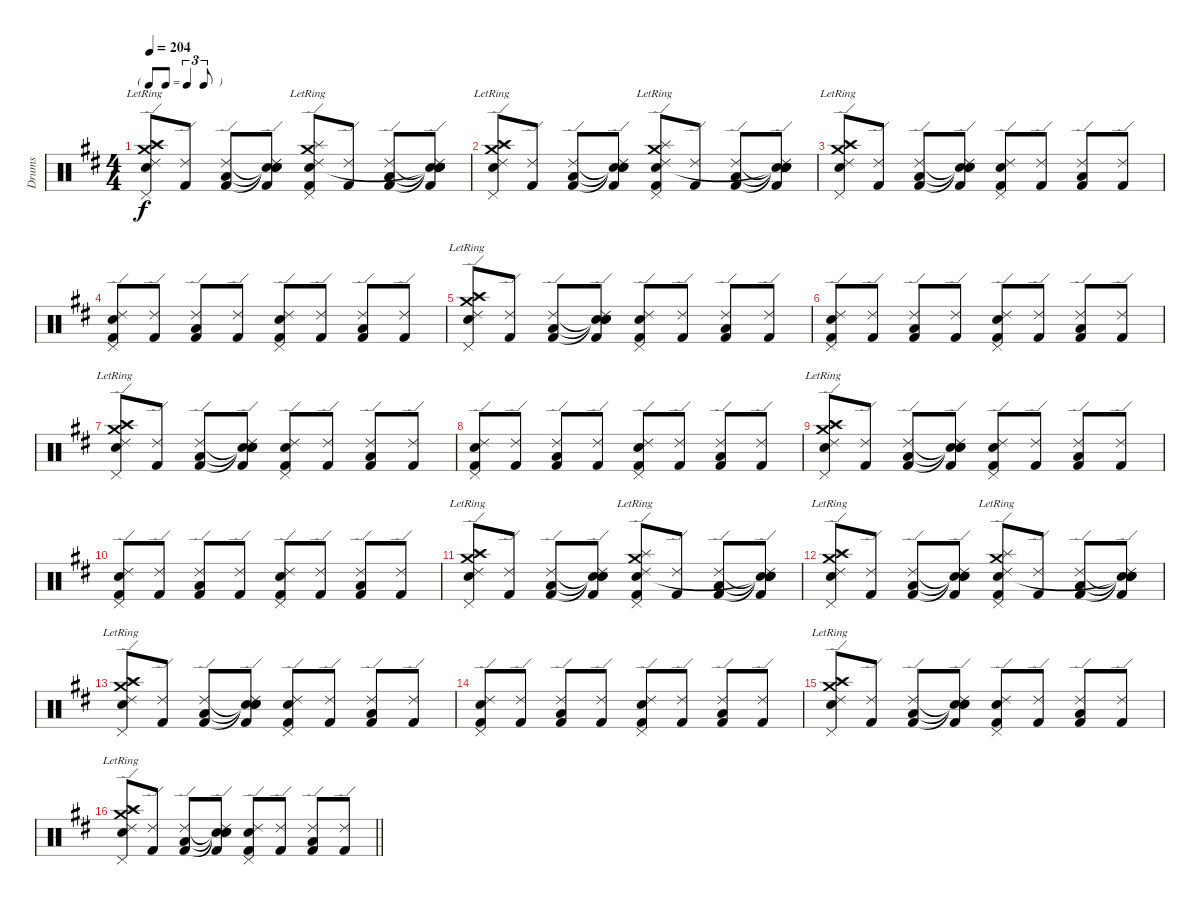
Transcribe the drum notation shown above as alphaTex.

\track ("Drums" "Drums") {instrument percussion}
\staff {score}
\articulation defaults
\ts (4 4)
\tf triplet8th
\tempo 204
\clef neutral
\ks d
("Ride (edge) 2" "Crash medium (hit)" "Crash high (hit)"{lr} "Pedal Hi-Hat (hit)"{lr} "Splash (hit)"{lr} "Snare (hit) 2"{lr}).8{dy f} ("Kick (hit) 2" "Ride (edge) 2").8 ("Low Floor Tom (hit)" "Ride (edge) 2" "Kick (hit) 2").8 ("Snare (hit)"{t} "Snare (hit)"{t} "Snare (hit)"{t} "Kick (hit) 2" "Ride (edge) 2").8 ("Ride (edge) 2"{lr} "Crash medium (hit)"{lr} "Kick (hit) 2"{lr} "Pedal Hi-Hat (hit)"{lr} "Splash (hit)"{lr} "Snare (hit) 2"{lr}).8 ("Kick (hit) 2" "Ride (edge) 2").8 ("Low Floor Tom (hit)" "Ride (edge) 2" "Kick (hit) 2").8 ("Snare (hit)"{t} "Snare (hit)"{t} "Snare (hit)"{t} "Kick (hit) 2" "Ride (edge) 2" "Snare (hit)"{t}).8 |
("Ride (edge) 2" "Crash medium (hit)" "Crash high (hit)"{lr} "Pedal Hi-Hat (hit)"{lr} "Splash (hit)"{lr} "Snare (hit) 2"{lr}).8 ("Kick (hit) 2" "Ride (edge) 2").8 ("Low Floor Tom (hit)" "Ride (edge) 2" "Kick (hit) 2").8 ("Snare (hit)"{t} "Snare (hit)"{t} "Snare (hit)"{t} "Kick (hit) 2" "Ride (edge) 2").8 ("Ride (edge) 2"{lr} "Crash medium (hit)"{lr} "Kick (hit) 2"{lr} "Pedal Hi-Hat (hit)"{lr} "Splash (hit)"{lr} "Snare (hit) 2"{lr}).8 ("Kick (hit) 2" "Ride (edge) 2").8 ("Low Floor Tom (hit)" "Ride (edge) 2" "Kick (hit) 2").8 ("Snare (hit)"{t} "Snare (hit)"{t} "Snare (hit)"{t} "Kick (hit) 2" "Ride (edge) 2" "Snare (hit)"{t}).8 |
("Ride (edge) 2" "Crash medium (hit)" "Crash high (hit)"{lr} "Pedal Hi-Hat (hit)"{lr} "Splash (hit)"{lr} "Snare (hit) 2"{lr}).8 ("Kick (hit) 2" "Ride (edge) 2").8 ("Low Floor Tom (hit)" "Ride (edge) 2" "Kick (hit) 2").8 ("Snare (hit)"{t} "Snare (hit)"{t} "Snare (hit)"{t} "Kick (hit) 2" "Ride (edge) 2").8 ("Kick (hit) 2" "Snare (hit) 2" "Ride (edge) 2" "Pedal Hi-Hat (hit)").8 ("Kick (hit) 2" "Ride (edge) 2").8 ("Low Floor Tom (hit)" "Ride (edge) 2" "Kick (hit) 2").8 ("Kick (hit) 2" "Ride (edge) 2").8 |
("Kick (hit) 2" "Snare (hit) 2" "Ride (edge) 2" "Pedal Hi-Hat (hit)").8 ("Kick (hit) 2" "Ride (edge) 2").8 ("Low Floor Tom (hit)" "Ride (edge) 2" "Kick (hit) 2").8 ("Kick (hit) 2" "Ride (edge) 2").8 ("Kick (hit) 2" "Snare (hit) 2" "Ride (edge) 2" "Pedal Hi-Hat (hit)").8 ("Kick (hit) 2" "Ride (edge) 2").8 ("Low Floor Tom (hit)" "Ride (edge) 2" "Kick (hit) 2").8 ("Kick (hit) 2" "Ride (edge) 2").8 |
("Ride (edge) 2" "Crash medium (hit)" "Crash high (hit)"{lr} "Pedal Hi-Hat (hit)"{lr} "Splash (hit)"{lr} "Snare (hit) 2"{lr}).8 ("Kick (hit) 2" "Ride (edge) 2").8 ("Low Floor Tom (hit)" "Ride (edge) 2" "Kick (hit) 2").8 ("Snare (hit)"{t} "Snare (hit)"{t} "Snare (hit)"{t} "Kick (hit) 2" "Ride (edge) 2").8 ("Kick (hit) 2" "Snare (hit) 2" "Ride (edge) 2" "Pedal Hi-Hat (hit)").8 ("Kick (hit) 2" "Ride (edge) 2").8 ("Low Floor Tom (hit)" "Ride (edge) 2" "Kick (hit) 2").8 ("Kick (hit) 2" "Ride (edge) 2").8 |
("Kick (hit) 2" "Snare (hit) 2" "Ride (edge) 2" "Pedal Hi-Hat (hit)").8 ("Kick (hit) 2" "Ride (edge) 2").8 ("Low Floor Tom (hit)" "Ride (edge) 2" "Kick (hit) 2").8 ("Kick (hit) 2" "Ride (edge) 2").8 ("Kick (hit) 2" "Snare (hit) 2" "Ride (edge) 2" "Pedal Hi-Hat (hit)").8 ("Kick (hit) 2" "Ride (edge) 2").8 ("Low Floor Tom (hit)" "Ride (edge) 2" "Kick (hit) 2").8 ("Kick (hit) 2" "Ride (edge) 2").8 |
("Ride (edge) 2" "Crash medium (hit)" "Crash high (hit)"{lr} "Pedal Hi-Hat (hit)"{lr} "Splash (hit)"{lr} "Snare (hit) 2"{lr}).8 ("Kick (hit) 2" "Ride (edge) 2").8 ("Low Floor Tom (hit)" "Ride (edge) 2" "Kick (hit) 2").8 ("Snare (hit)"{t} "Snare (hit)"{t} "Snare (hit)"{t} "Kick (hit) 2" "Ride (edge) 2").8 ("Kick (hit) 2" "Snare (hit) 2" "Ride (edge) 2" "Pedal Hi-Hat (hit)").8 ("Kick (hit) 2" "Ride (edge) 2").8 ("Low Floor Tom (hit)" "Ride (edge) 2" "Kick (hit) 2").8 ("Kick (hit) 2" "Ride (edge) 2").8 |
("Kick (hit) 2" "Snare (hit) 2" "Ride (edge) 2" "Pedal Hi-Hat (hit)").8 ("Kick (hit) 2" "Ride (edge) 2").8 ("Low Floor Tom (hit)" "Ride (edge) 2" "Kick (hit) 2").8 ("Kick (hit) 2" "Ride (edge) 2").8 ("Kick (hit) 2" "Snare (hit) 2" "Ride (edge) 2" "Pedal Hi-Hat (hit)").8 ("Kick (hit) 2" "Ride (edge) 2").8 ("Low Floor Tom (hit)" "Ride (edge) 2" "Kick (hit) 2").8 ("Kick (hit) 2" "Ride (edge) 2").8 |
("Ride (edge) 2" "Crash medium (hit)" "Crash high (hit)"{lr} "Pedal Hi-Hat (hit)"{lr} "Splash (hit)"{lr} "Snare (hit) 2"{lr}).8 ("Kick (hit) 2" "Ride (edge) 2").8 ("Low Floor Tom (hit)" "Ride (edge) 2" "Kick (hit) 2").8 ("Snare (hit)"{t} "Snare (hit)"{t} "Snare (hit)"{t} "Kick (hit) 2" "Ride (edge) 2").8 ("Kick (hit) 2" "Snare (hit) 2" "Ride (edge) 2" "Pedal Hi-Hat (hit)").8 ("Kick (hit) 2" "Ride (edge) 2").8 ("Low Floor Tom (hit)" "Ride (edge) 2" "Kick (hit) 2").8 ("Kick (hit) 2" "Ride (edge) 2").8 |
("Kick (hit) 2" "Snare (hit) 2" "Ride (edge) 2" "Pedal Hi-Hat (hit)").8 ("Kick (hit) 2" "Ride (edge) 2").8 ("Low Floor Tom (hit)" "Ride (edge) 2" "Kick (hit) 2").8 ("Kick (hit) 2" "Ride (edge) 2").8 ("Kick (hit) 2" "Snare (hit) 2" "Ride (edge) 2" "Pedal Hi-Hat (hit)").8 ("Kick (hit) 2" "Ride (edge) 2").8 ("Low Floor Tom (hit)" "Ride (edge) 2" "Kick (hit) 2").8 ("Kick (hit) 2" "Ride (edge) 2").8 |
("Ride (edge) 2" "Crash medium (hit)" "Crash high (hit)"{lr} "Pedal Hi-Hat (hit)"{lr} "Splash (hit)"{lr} "Snare (hit) 2"{lr}).8 ("Kick (hit) 2" "Ride (edge) 2").8 ("Low Floor Tom (hit)" "Ride (edge) 2" "Kick (hit) 2").8 ("Snare (hit)"{t} "Snare (hit)"{t} "Snare (hit)"{t} "Kick (hit) 2" "Ride (edge) 2").8 ("Ride (edge) 2"{lr} "Crash medium (hit)"{lr} "Kick (hit) 2"{lr} "Pedal Hi-Hat (hit)"{lr} "Splash (hit)"{lr} "Snare (hit) 2"{lr}).8 ("Kick (hit) 2" "Ride (edge) 2").8 ("Low Floor Tom (hit)" "Ride (edge) 2" "Kick (hit) 2").8 ("Snare (hit)"{t} "Snare (hit)"{t} "Snare (hit)"{t} "Kick (hit) 2" "Ride (edge) 2" "Snare (hit)"{t}).8 |
("Ride (edge) 2" "Crash medium (hit)" "Crash high (hit)"{lr} "Pedal Hi-Hat (hit)"{lr} "Splash (hit)"{lr} "Snare (hit) 2"{lr}).8 ("Kick (hit) 2" "Ride (edge) 2").8 ("Low Floor Tom (hit)" "Ride (edge) 2" "Kick (hit) 2").8 ("Snare (hit)"{t} "Snare (hit)"{t} "Snare (hit)"{t} "Kick (hit) 2" "Ride (edge) 2").8 ("Ride (edge) 2"{lr} "Crash medium (hit)"{lr} "Kick (hit) 2"{lr} "Pedal Hi-Hat (hit)"{lr} "Splash (hit)"{lr} "Snare (hit) 2"{lr}).8 ("Kick (hit) 2" "Ride (edge) 2").8 ("Low Floor Tom (hit)" "Ride (edge) 2" "Kick (hit) 2").8 ("Snare (hit)"{t} "Snare (hit)"{t} "Snare (hit)"{t} "Kick (hit) 2" "Ride (edge) 2" "Snare (hit)"{t}).8 |
("Ride (edge) 2" "Crash medium (hit)" "Crash high (hit)"{lr} "Pedal Hi-Hat (hit)"{lr} "Splash (hit)"{lr} "Snare (hit) 2"{lr}).8 ("Kick (hit) 2" "Ride (edge) 2").8 ("Low Floor Tom (hit)" "Ride (edge) 2" "Kick (hit) 2").8 ("Snare (hit)"{t} "Snare (hit)"{t} "Snare (hit)"{t} "Kick (hit) 2" "Ride (edge) 2").8 ("Kick (hit) 2" "Snare (hit) 2" "Ride (edge) 2" "Pedal Hi-Hat (hit)").8 ("Kick (hit) 2" "Ride (edge) 2").8 ("Low Floor Tom (hit)" "Ride (edge) 2" "Kick (hit) 2").8 ("Kick (hit) 2" "Ride (edge) 2").8 |
("Kick (hit) 2" "Snare (hit) 2" "Ride (edge) 2" "Pedal Hi-Hat (hit)").8 ("Kick (hit) 2" "Ride (edge) 2").8 ("Low Floor Tom (hit)" "Ride (edge) 2" "Kick (hit) 2").8 ("Kick (hit) 2" "Ride (edge) 2").8 ("Kick (hit) 2" "Snare (hit) 2" "Ride (edge) 2" "Pedal Hi-Hat (hit)").8 ("Kick (hit) 2" "Ride (edge) 2").8 ("Low Floor Tom (hit)" "Ride (edge) 2" "Kick (hit) 2").8 ("Kick (hit) 2" "Ride (edge) 2").8 |
("Ride (edge) 2" "Crash medium (hit)" "Crash high (hit)"{lr} "Pedal Hi-Hat (hit)"{lr} "Splash (hit)"{lr} "Snare (hit) 2"{lr}).8 ("Kick (hit) 2" "Ride (edge) 2").8 ("Low Floor Tom (hit)" "Ride (edge) 2" "Kick (hit) 2").8 ("Snare (hit)"{t} "Snare (hit)"{t} "Snare (hit)"{t} "Kick (hit) 2" "Ride (edge) 2").8 ("Kick (hit) 2" "Snare (hit) 2" "Ride (edge) 2" "Pedal Hi-Hat (hit)").8 ("Kick (hit) 2" "Ride (edge) 2").8 ("Low Floor Tom (hit)" "Ride (edge) 2" "Kick (hit) 2").8 ("Kick (hit) 2" "Ride (edge) 2").8 |
\barLineRight lightlight
("Ride (edge) 2" "Crash medium (hit)" "Crash high (hit)"{lr} "Pedal Hi-Hat (hit)"{lr} "Splash (hit)"{lr} "Snare (hit) 2"{lr}).8 ("Kick (hit) 2" "Ride (edge) 2").8 ("Low Floor Tom (hit)" "Ride (edge) 2" "Kick (hit) 2").8 ("Snare (hit)"{t} "Snare (hit)"{t} "Snare (hit)"{t} "Kick (hit) 2" "Ride (edge) 2").8 ("Kick (hit) 2" "Snare (hit) 2" "Ride (edge) 2" "Pedal Hi-Hat (hit)").8 ("Kick (hit) 2" "Ride (edge) 2").8 ("Low Floor Tom (hit)" "Ride (edge) 2" "Kick (hit) 2").8 ("Kick (hit) 2" "Ride (edge) 2").8
